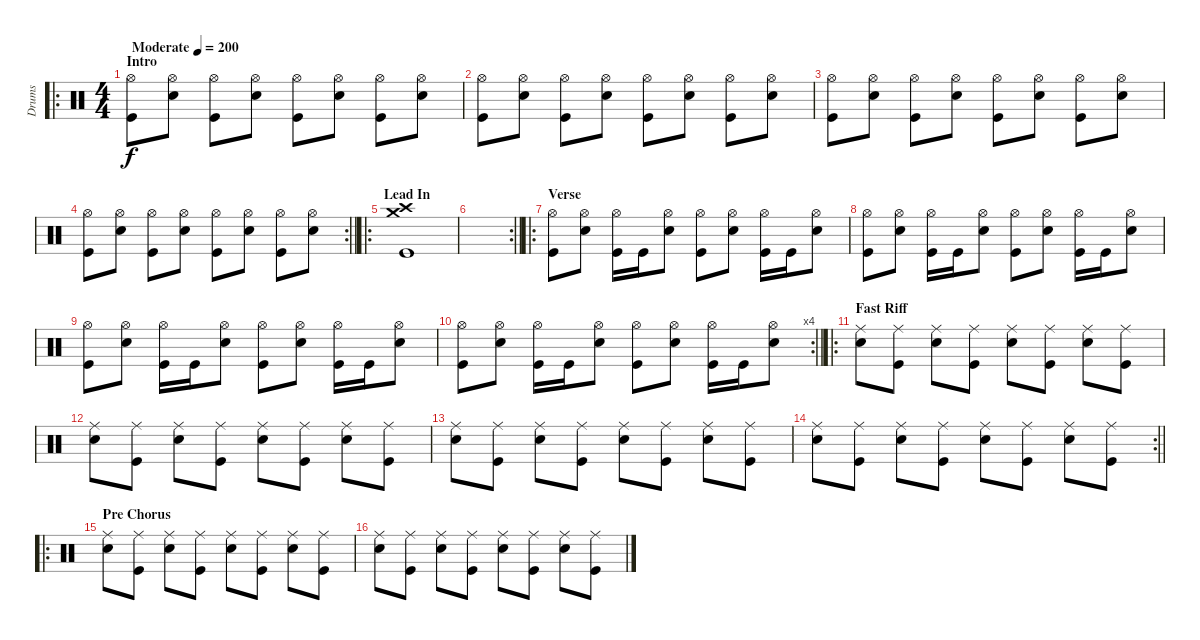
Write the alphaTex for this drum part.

\track ("Drums" "Drums") {instrument percussion}
\staff {score}
\articulation defaults
\ro
\ts (4 4)
\section ("" "Intro")
\tempo (200 "Moderate")
\clef neutral
\ks c
("Hi-Hat (open)" "Kick (hit)").8{dy f} ("Hi-Hat (open)" "Snare (hit) 2").8 ("Hi-Hat (open)" "Kick (hit)").8 ("Hi-Hat (open)" "Snare (hit) 2").8 ("Hi-Hat (open)" "Kick (hit)").8 ("Hi-Hat (open)" "Snare (hit) 2").8 ("Hi-Hat (open)" "Kick (hit)").8 ("Hi-Hat (open)" "Snare (hit) 2").8 |
("Hi-Hat (open)" "Kick (hit)").8 ("Hi-Hat (open)" "Snare (hit) 2").8 ("Hi-Hat (open)" "Kick (hit)").8 ("Hi-Hat (open)" "Snare (hit) 2").8 ("Hi-Hat (open)" "Kick (hit)").8 ("Hi-Hat (open)" "Snare (hit) 2").8 ("Hi-Hat (open)" "Kick (hit)").8 ("Hi-Hat (open)" "Snare (hit) 2").8 |
("Hi-Hat (open)" "Kick (hit)").8 ("Hi-Hat (open)" "Snare (hit) 2").8 ("Hi-Hat (open)" "Kick (hit)").8 ("Hi-Hat (open)" "Snare (hit) 2").8 ("Hi-Hat (open)" "Kick (hit)").8 ("Hi-Hat (open)" "Snare (hit) 2").8 ("Hi-Hat (open)" "Kick (hit)").8 ("Hi-Hat (open)" "Snare (hit) 2").8 |
\rc 2
\barLineRight lightlight
("Hi-Hat (open)" "Kick (hit)").8 ("Hi-Hat (open)" "Snare (hit) 2").8 ("Hi-Hat (open)" "Kick (hit)").8 ("Hi-Hat (open)" "Snare (hit) 2").8 ("Hi-Hat (open)" "Kick (hit)").8 ("Hi-Hat (open)" "Snare (hit) 2").8 ("Hi-Hat (open)" "Kick (hit)").8 ("Hi-Hat (open)" "Snare (hit) 2").8 |
\ro
\section ("" "Lead In")
("Crash medium (hit)" "Crash high (hit)" "Kick (hit)").1 |
\rc 2
\barLineRight lightlight
|
\ro
\section ("" "Verse")
("Hi-Hat (open)" "Kick (hit)").8 ("Hi-Hat (open)" "Snare (hit) 2").8 ("Hi-Hat (open)" "Kick (hit)").16 "Kick (hit)".16 ("Hi-Hat (open)" "Snare (hit) 2").8 ("Hi-Hat (open)" "Kick (hit)").8 ("Hi-Hat (open)" "Snare (hit) 2").8 ("Hi-Hat (open)" "Kick (hit)").16 "Kick (hit)".16 ("Hi-Hat (open)" "Snare (hit) 2").8 |
("Hi-Hat (open)" "Kick (hit)").8 ("Hi-Hat (open)" "Snare (hit) 2").8 ("Hi-Hat (open)" "Kick (hit)").16 "Kick (hit)".16 ("Hi-Hat (open)" "Snare (hit) 2").8 ("Hi-Hat (open)" "Kick (hit)").8 ("Hi-Hat (open)" "Snare (hit) 2").8 ("Hi-Hat (open)" "Kick (hit)").16 "Kick (hit)".16 ("Hi-Hat (open)" "Snare (hit) 2").8 |
("Hi-Hat (open)" "Kick (hit)").8 ("Hi-Hat (open)" "Snare (hit) 2").8 ("Hi-Hat (open)" "Kick (hit)").16 "Kick (hit)".16 ("Hi-Hat (open)" "Snare (hit) 2").8 ("Hi-Hat (open)" "Kick (hit)").8 ("Hi-Hat (open)" "Snare (hit) 2").8 ("Hi-Hat (open)" "Kick (hit)").16 "Kick (hit)".16 ("Hi-Hat (open)" "Snare (hit) 2").8 |
\rc 4
\barLineRight lightlight
("Hi-Hat (open)" "Kick (hit)").8 ("Hi-Hat (open)" "Snare (hit) 2").8 ("Hi-Hat (open)" "Kick (hit)").16 "Kick (hit)".16 ("Hi-Hat (open)" "Snare (hit) 2").8 ("Hi-Hat (open)" "Kick (hit)").8 ("Hi-Hat (open)" "Snare (hit) 2").8 ("Hi-Hat (open)" "Kick (hit)").16 "Kick (hit)".16 ("Hi-Hat (open)" "Snare (hit) 2").8 |
\ro
\section ("" "Fast Riff")
("Ride (middle)" "Snare (hit) 2").8 ("Ride (middle)" "Kick (hit)").8 ("Ride (middle)" "Snare (hit) 2").8 ("Ride (middle)" "Kick (hit)").8 ("Ride (middle)" "Snare (hit) 2").8 ("Ride (middle)" "Kick (hit)").8 ("Ride (middle)" "Snare (hit) 2").8 ("Ride (middle)" "Kick (hit)").8 |
("Ride (middle)" "Snare (hit) 2").8 ("Ride (middle)" "Kick (hit)").8 ("Ride (middle)" "Snare (hit) 2").8 ("Ride (middle)" "Kick (hit)").8 ("Ride (middle)" "Snare (hit) 2").8 ("Ride (middle)" "Kick (hit)").8 ("Ride (middle)" "Snare (hit) 2").8 ("Ride (middle)" "Kick (hit)").8 |
("Ride (middle)" "Snare (hit) 2").8 ("Ride (middle)" "Kick (hit)").8 ("Ride (middle)" "Snare (hit) 2").8 ("Ride (middle)" "Kick (hit)").8 ("Ride (middle)" "Snare (hit) 2").8 ("Ride (middle)" "Kick (hit)").8 ("Ride (middle)" "Snare (hit) 2").8 ("Ride (middle)" "Kick (hit)").8 |
\rc 2
\barLineRight lightlight
("Ride (middle)" "Snare (hit) 2").8 ("Ride (middle)" "Kick (hit)").8 ("Ride (middle)" "Snare (hit) 2").8 ("Ride (middle)" "Kick (hit)").8 ("Ride (middle)" "Snare (hit) 2").8 ("Ride (middle)" "Kick (hit)").8 ("Ride (middle)" "Snare (hit) 2").8 ("Ride (middle)" "Kick (hit)").8 |
\ro
\section ("" "Pre Chorus")
("Ride (middle)" "Snare (hit) 2").8 ("Ride (middle)" "Kick (hit)").8 ("Ride (middle)" "Snare (hit) 2").8 ("Ride (middle)" "Kick (hit)").8 ("Ride (middle)" "Snare (hit) 2").8 ("Ride (middle)" "Kick (hit)").8 ("Ride (middle)" "Snare (hit) 2").8 ("Ride (middle)" "Kick (hit)").8 |
("Ride (middle)" "Snare (hit) 2").8 ("Ride (middle)" "Kick (hit)").8 ("Ride (middle)" "Snare (hit) 2").8 ("Ride (middle)" "Kick (hit)").8 ("Ride (middle)" "Snare (hit) 2").8 ("Ride (middle)" "Kick (hit)").8 ("Ride (middle)" "Snare (hit) 2").8 ("Ride (middle)" "Kick (hit)").8
